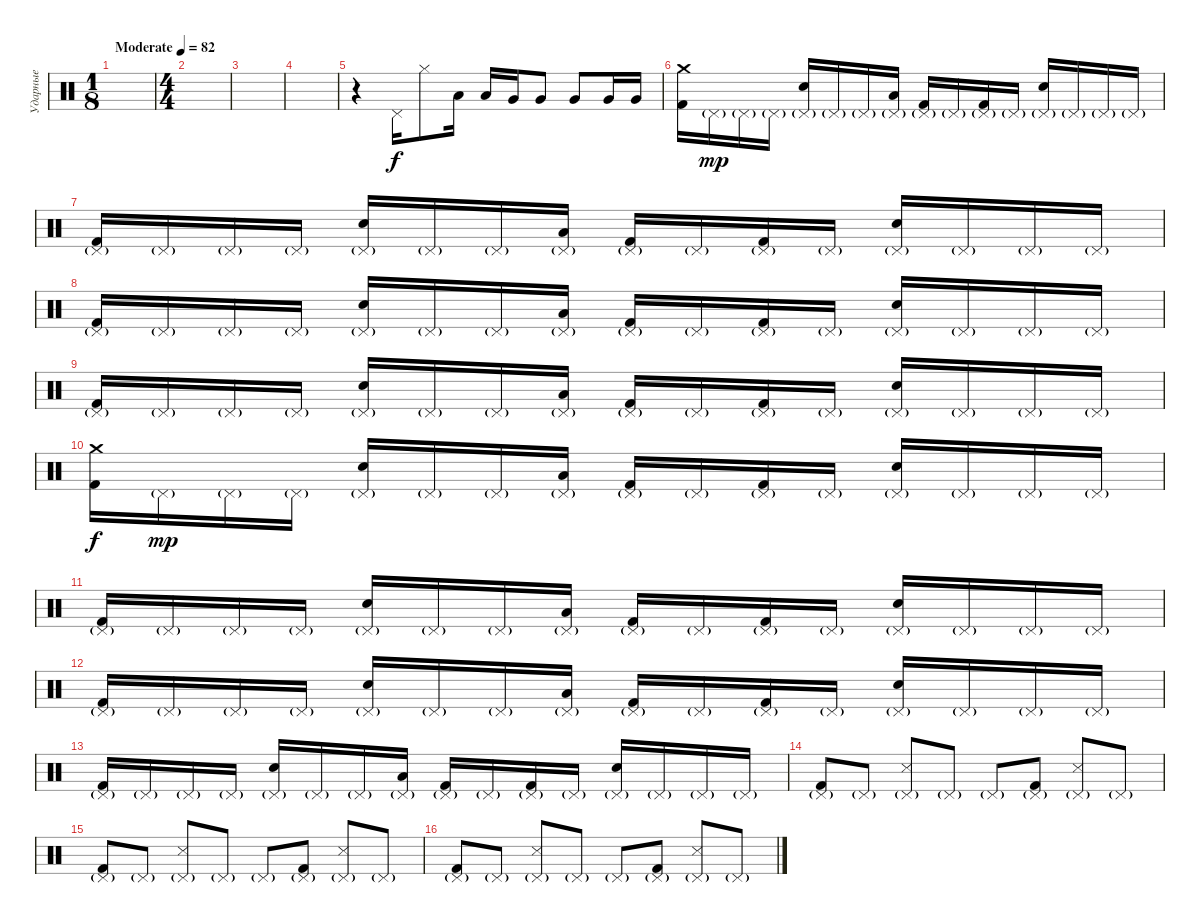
\track ("Ударные" "Ударные") {instrument percussion}
\staff {score}
\articulation defaults
\ts (1 8)
\tempo (82 "Moderate")
\clef neutral
\ks c
|
\ts (4 4)
|
|
|
r.4 "Pedal Hi-Hat (hit)".16 "Hi-Hat (closed)".8 "Low Tom (hit)".16 "Low Tom (hit)".16 "Very Low Tom (hit)".16 "Very Low Tom (hit)".8 "Very Low Tom (hit)".8 "Very Low Tom (hit)".16 "Very Low Tom (hit)".16 |
("Crash medium (hit)" "Kick (hit) 2").16 "Pedal Hi-Hat (hit)"{g}.16{dy mp} "Pedal Hi-Hat (hit)"{g}.16 "Pedal Hi-Hat (hit)"{g}.16 ("Pedal Hi-Hat (hit)"{g} "Electric Snare (hit)").16 "Pedal Hi-Hat (hit)"{g}.16 "Pedal Hi-Hat (hit)"{g}.16 ("Pedal Hi-Hat (hit)"{g} "Low Floor Tom (hit)").16 ("Pedal Hi-Hat (hit)"{g} "Kick (hit) 2").16 "Pedal Hi-Hat (hit)"{g}.16 ("Pedal Hi-Hat (hit)"{g} "Kick (hit) 2").16 "Pedal Hi-Hat (hit)"{g}.16 ("Pedal Hi-Hat (hit)"{g} "Electric Snare (hit)").16 "Pedal Hi-Hat (hit)"{g}.16 "Pedal Hi-Hat (hit)"{g}.16 "Pedal Hi-Hat (hit)"{g}.16 |
("Pedal Hi-Hat (hit)"{g} "Kick (hit) 2").16 "Pedal Hi-Hat (hit)"{g}.16 "Pedal Hi-Hat (hit)"{g}.16 "Pedal Hi-Hat (hit)"{g}.16 ("Pedal Hi-Hat (hit)"{g} "Electric Snare (hit)").16 "Pedal Hi-Hat (hit)"{g}.16 "Pedal Hi-Hat (hit)"{g}.16 ("Pedal Hi-Hat (hit)"{g} "Low Floor Tom (hit)").16 ("Pedal Hi-Hat (hit)"{g} "Kick (hit) 2").16 "Pedal Hi-Hat (hit)"{g}.16 ("Pedal Hi-Hat (hit)"{g} "Kick (hit) 2").16 "Pedal Hi-Hat (hit)"{g}.16 ("Pedal Hi-Hat (hit)"{g} "Electric Snare (hit)").16 "Pedal Hi-Hat (hit)"{g}.16 "Pedal Hi-Hat (hit)"{g}.16 "Pedal Hi-Hat (hit)"{g}.16 |
("Pedal Hi-Hat (hit)"{g} "Kick (hit) 2").16 "Pedal Hi-Hat (hit)"{g}.16 "Pedal Hi-Hat (hit)"{g}.16 "Pedal Hi-Hat (hit)"{g}.16 ("Pedal Hi-Hat (hit)"{g} "Electric Snare (hit)").16 "Pedal Hi-Hat (hit)"{g}.16 "Pedal Hi-Hat (hit)"{g}.16 ("Pedal Hi-Hat (hit)"{g} "Low Floor Tom (hit)").16 ("Pedal Hi-Hat (hit)"{g} "Kick (hit) 2").16 "Pedal Hi-Hat (hit)"{g}.16 ("Pedal Hi-Hat (hit)"{g} "Kick (hit) 2").16 "Pedal Hi-Hat (hit)"{g}.16 ("Pedal Hi-Hat (hit)"{g} "Electric Snare (hit)").16 "Pedal Hi-Hat (hit)"{g}.16 "Pedal Hi-Hat (hit)"{g}.16 "Pedal Hi-Hat (hit)"{g}.16 |
("Pedal Hi-Hat (hit)"{g} "Kick (hit) 2").16 "Pedal Hi-Hat (hit)"{g}.16 "Pedal Hi-Hat (hit)"{g}.16 "Pedal Hi-Hat (hit)"{g}.16 ("Pedal Hi-Hat (hit)"{g} "Electric Snare (hit)").16 "Pedal Hi-Hat (hit)"{g}.16 "Pedal Hi-Hat (hit)"{g}.16 ("Pedal Hi-Hat (hit)"{g} "Low Floor Tom (hit)").16 ("Pedal Hi-Hat (hit)"{g} "Kick (hit) 2").16 "Pedal Hi-Hat (hit)"{g}.16 ("Pedal Hi-Hat (hit)"{g} "Kick (hit) 2").16 "Pedal Hi-Hat (hit)"{g}.16 ("Pedal Hi-Hat (hit)"{g} "Electric Snare (hit)").16 "Pedal Hi-Hat (hit)"{g}.16 "Pedal Hi-Hat (hit)"{g}.16 "Pedal Hi-Hat (hit)"{g}.16 |
("Crash medium (hit)" "Kick (hit) 2").16{dy f} "Pedal Hi-Hat (hit)"{g}.16{dy mp} "Pedal Hi-Hat (hit)"{g}.16 "Pedal Hi-Hat (hit)"{g}.16 ("Pedal Hi-Hat (hit)"{g} "Electric Snare (hit)").16 "Pedal Hi-Hat (hit)"{g}.16 "Pedal Hi-Hat (hit)"{g}.16 ("Pedal Hi-Hat (hit)"{g} "Low Floor Tom (hit)").16 ("Pedal Hi-Hat (hit)"{g} "Kick (hit) 2").16 "Pedal Hi-Hat (hit)"{g}.16 ("Pedal Hi-Hat (hit)"{g} "Kick (hit) 2").16 "Pedal Hi-Hat (hit)"{g}.16 ("Pedal Hi-Hat (hit)"{g} "Electric Snare (hit)").16 "Pedal Hi-Hat (hit)"{g}.16 "Pedal Hi-Hat (hit)"{g}.16 "Pedal Hi-Hat (hit)"{g}.16 |
("Pedal Hi-Hat (hit)"{g} "Kick (hit) 2").16 "Pedal Hi-Hat (hit)"{g}.16 "Pedal Hi-Hat (hit)"{g}.16 "Pedal Hi-Hat (hit)"{g}.16 ("Pedal Hi-Hat (hit)"{g} "Electric Snare (hit)").16 "Pedal Hi-Hat (hit)"{g}.16 "Pedal Hi-Hat (hit)"{g}.16 ("Pedal Hi-Hat (hit)"{g} "Low Floor Tom (hit)").16 ("Pedal Hi-Hat (hit)"{g} "Kick (hit) 2").16 "Pedal Hi-Hat (hit)"{g}.16 ("Pedal Hi-Hat (hit)"{g} "Kick (hit) 2").16 "Pedal Hi-Hat (hit)"{g}.16 ("Pedal Hi-Hat (hit)"{g} "Electric Snare (hit)").16 "Pedal Hi-Hat (hit)"{g}.16 "Pedal Hi-Hat (hit)"{g}.16 "Pedal Hi-Hat (hit)"{g}.16 |
("Pedal Hi-Hat (hit)"{g} "Kick (hit) 2").16 "Pedal Hi-Hat (hit)"{g}.16 "Pedal Hi-Hat (hit)"{g}.16 "Pedal Hi-Hat (hit)"{g}.16 ("Pedal Hi-Hat (hit)"{g} "Electric Snare (hit)").16 "Pedal Hi-Hat (hit)"{g}.16 "Pedal Hi-Hat (hit)"{g}.16 ("Pedal Hi-Hat (hit)"{g} "Low Floor Tom (hit)").16 ("Pedal Hi-Hat (hit)"{g} "Kick (hit) 2").16 "Pedal Hi-Hat (hit)"{g}.16 ("Pedal Hi-Hat (hit)"{g} "Kick (hit) 2").16 "Pedal Hi-Hat (hit)"{g}.16 ("Pedal Hi-Hat (hit)"{g} "Electric Snare (hit)").16 "Pedal Hi-Hat (hit)"{g}.16 "Pedal Hi-Hat (hit)"{g}.16 "Pedal Hi-Hat (hit)"{g}.16 |
("Pedal Hi-Hat (hit)"{g} "Kick (hit) 2").16 "Pedal Hi-Hat (hit)"{g}.16 "Pedal Hi-Hat (hit)"{g}.16 "Pedal Hi-Hat (hit)"{g}.16 ("Pedal Hi-Hat (hit)"{g} "Electric Snare (hit)").16 "Pedal Hi-Hat (hit)"{g}.16 "Pedal Hi-Hat (hit)"{g}.16 ("Pedal Hi-Hat (hit)"{g} "Low Floor Tom (hit)").16 ("Pedal Hi-Hat (hit)"{g} "Kick (hit) 2").16 "Pedal Hi-Hat (hit)"{g}.16 ("Pedal Hi-Hat (hit)"{g} "Kick (hit) 2").16 "Pedal Hi-Hat (hit)"{g}.16 ("Pedal Hi-Hat (hit)"{g} "Electric Snare (hit)").16 "Pedal Hi-Hat (hit)"{g}.16 "Pedal Hi-Hat (hit)"{g}.16 "Pedal Hi-Hat (hit)"{g}.16 |
("Pedal Hi-Hat (hit)"{g} "Kick (hit) 2").8 "Pedal Hi-Hat (hit)"{g}.8 ("Pedal Hi-Hat (hit)"{g} "Snare (side stick) 3").8 "Pedal Hi-Hat (hit)"{g}.8 "Pedal Hi-Hat (hit)"{g}.8 ("Pedal Hi-Hat (hit)"{g} "Kick (hit) 2").8 ("Pedal Hi-Hat (hit)"{g} "Snare (side stick) 3").8 "Pedal Hi-Hat (hit)"{g}.8 |
("Pedal Hi-Hat (hit)"{g} "Kick (hit) 2").8 "Pedal Hi-Hat (hit)"{g}.8 ("Pedal Hi-Hat (hit)"{g} "Snare (side stick) 3").8 "Pedal Hi-Hat (hit)"{g}.8 "Pedal Hi-Hat (hit)"{g}.8 ("Pedal Hi-Hat (hit)"{g} "Kick (hit) 2").8 ("Pedal Hi-Hat (hit)"{g} "Snare (side stick) 3").8 "Pedal Hi-Hat (hit)"{g}.8 |
("Pedal Hi-Hat (hit)"{g} "Kick (hit) 2").8 "Pedal Hi-Hat (hit)"{g}.8 ("Pedal Hi-Hat (hit)"{g} "Snare (side stick) 3").8 "Pedal Hi-Hat (hit)"{g}.8 "Pedal Hi-Hat (hit)"{g}.8 ("Pedal Hi-Hat (hit)"{g} "Kick (hit) 2").8 ("Pedal Hi-Hat (hit)"{g} "Snare (side stick) 3").8 "Pedal Hi-Hat (hit)"{g}.8
